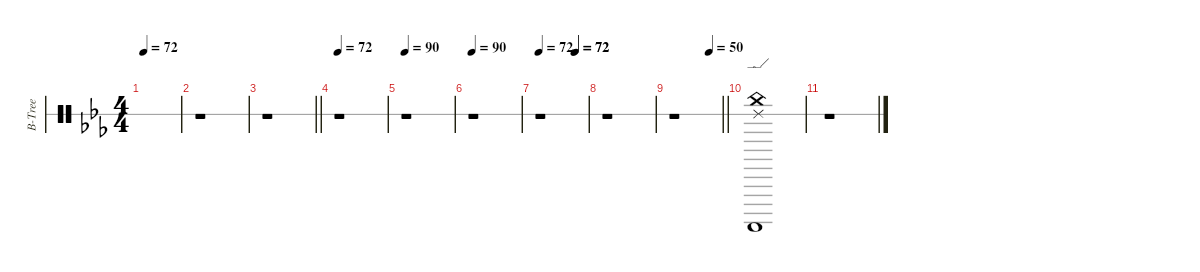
\defaultSystemsLayout 8
\hideDynamics
\bracketExtendMode nobrackets
\otherSystemsTrackNameOrientation horizontal
\track ("Bell Tree" "B-Tree") {defaultSystemsLayout 32 instrument percussion}
\staff {score 1}
\articulation defaults
\ts (4 4)
\tempo 72
\clef neutral
\ks eb
|
r.1{beam Down} |
\barLineRight lightlight
r.1{beam Down} |
\tempo 72
r.1{beam Down} |
\tempo 90
r.1{beam Down} |
\tempo 90
r.1{beam Down} |
\tempo 72
\tempo (72 0.7499)
\tempo (72 0.75)
r.1{beam Down} |
r.1{beam Down} |
\tempo (50 0.75)
\barLineRight lightlight
r.1{beam Down} |
("China (choke)"{acc forcenatural} "Ride (edge)"{acc forcenatural} "Grancassa (hit)"{acc forcenatural}).1{beam Up} |
r.1{beam Down}
